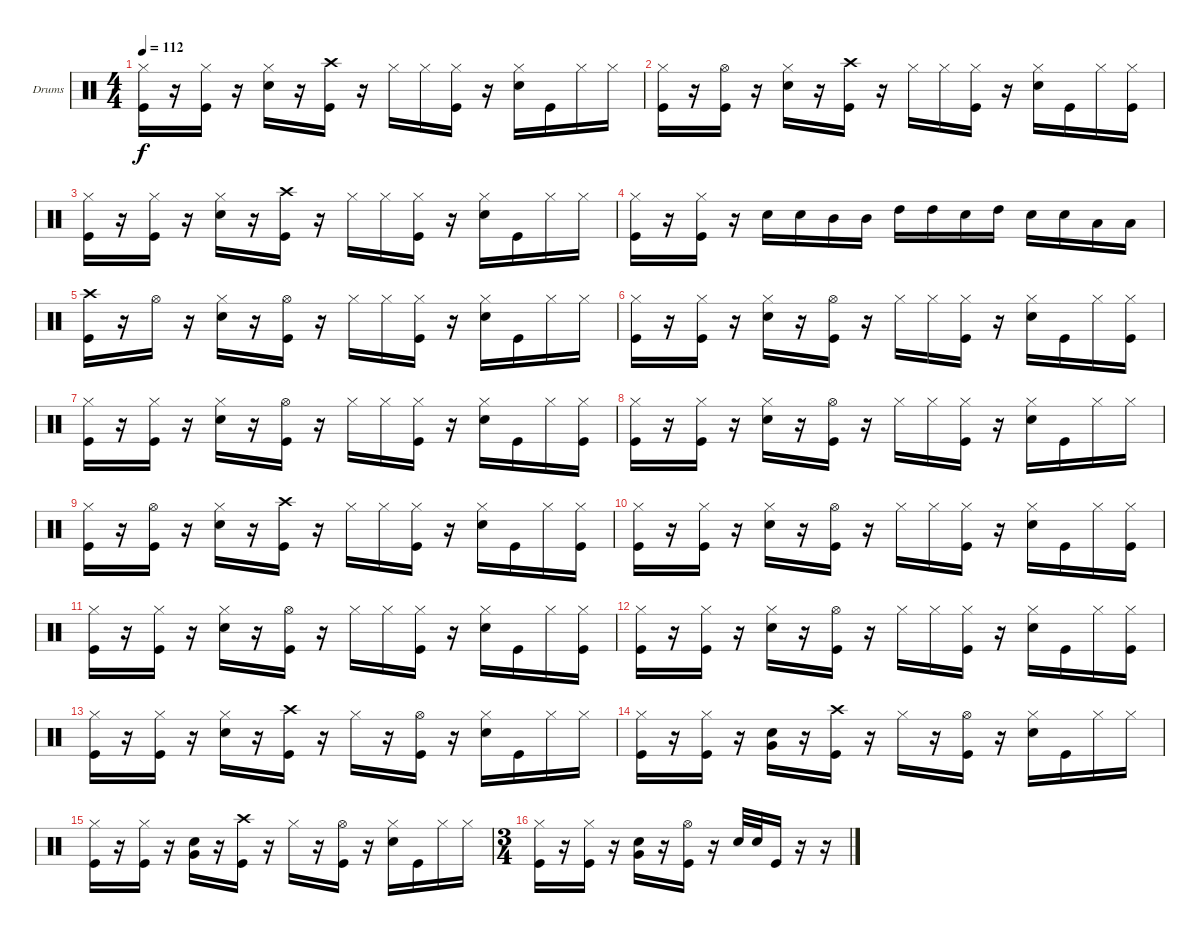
\bracketExtendMode groupsimilarinstruments
\firstSystemTrackNameOrientation horizontal
\otherSystemsTrackNameOrientation horizontal
\track ("Drumkit" "Drums") {instrument percussion}
\staff {score}
\articulation defaults
\ts (4 4)
\tempo 112
\clef neutral
\ks c
("Hi-Hat (closed)" "Kick (hit)").16{dy f} r.16 ("Hi-Hat (closed)" "Kick (hit)").16 r.16 ("Hi-Hat (closed)" "Snare (hit) 2").16 r.16 ("Crash high (hit)" "Kick (hit)").16 r.16 "Hi-Hat (closed)".16 "Hi-Hat (closed)".16 ("Hi-Hat (closed)" "Kick (hit)").16 r.16 ("Hi-Hat (closed)" "Snare (hit) 2").16 "Kick (hit)".16 "Hi-Hat (closed)".16 "Hi-Hat (closed)".16 |
("Hi-Hat (closed)" "Kick (hit)").16 r.16 ("Hi-Hat (open)" "Kick (hit)").16 r.16 ("Hi-Hat (closed)" "Snare (hit) 2").16 r.16 ("Crash high (hit)" "Kick (hit)").16 r.16 "Hi-Hat (closed)".16 "Hi-Hat (closed)".16 ("Hi-Hat (closed)" "Kick (hit)").16 r.16 ("Hi-Hat (closed)" "Snare (hit) 2").16 "Kick (hit)".16 "Hi-Hat (closed)".16 ("Hi-Hat (closed)" "Kick (hit)").16 |
("Hi-Hat (closed)" "Kick (hit)").16 r.16 ("Hi-Hat (closed)" "Kick (hit)").16 r.16 ("Hi-Hat (closed)" "Snare (hit) 2").16 r.16 ("Crash high (hit)" "Kick (hit)").16 r.16 "Hi-Hat (closed)".16 "Hi-Hat (closed)".16 ("Hi-Hat (closed)" "Kick (hit)").16 r.16 ("Hi-Hat (closed)" "Snare (hit) 2").16 "Kick (hit)".16 "Hi-Hat (closed)".16 "Hi-Hat (closed)".16 |
("Hi-Hat (closed)" "Kick (hit)").16 r.16 ("Hi-Hat (closed)" "Kick (hit)").16 r.16 "Snare (hit) 2".16 "Snare (hit) 2".16 "Mid Tom (hit)".16 "Mid Tom (hit)".16 "High Tom (hit)".16 "High Tom (hit)".16 "Snare (hit) 2".16 "High Tom (hit)".16 "Snare (hit) 2".16 "Snare (hit) 2".16 "Low Tom (hit)".16 "Low Tom (hit)".16 |
("Crash high (hit)" "Kick (hit)").16 r.16 "Hi-Hat (open)".16 r.16 ("Hi-Hat (closed)" "Snare (hit) 2").16 r.16 ("Hi-Hat (open)" "Kick (hit)").16 r.16 "Hi-Hat (closed)".16 "Hi-Hat (closed)".16 ("Hi-Hat (closed)" "Kick (hit)").16 r.16 ("Hi-Hat (closed)" "Snare (hit) 2").16 "Kick (hit)".16 "Hi-Hat (closed)".16 "Hi-Hat (closed)".16 |
("Hi-Hat (closed)" "Kick (hit)").16 r.16 ("Hi-Hat (closed)" "Kick (hit)").16 r.16 ("Hi-Hat (closed)" "Snare (hit) 2").16 r.16 ("Hi-Hat (open)" "Kick (hit)").16 r.16 "Hi-Hat (closed)".16 "Hi-Hat (closed)".16 ("Hi-Hat (closed)" "Kick (hit)").16 r.16 ("Hi-Hat (closed)" "Snare (hit) 2").16 "Kick (hit)".16 "Hi-Hat (closed)".16 ("Hi-Hat (closed)" "Kick (hit)").16 |
("Hi-Hat (closed)" "Kick (hit)").16 r.16 ("Hi-Hat (closed)" "Kick (hit)").16 r.16 ("Hi-Hat (closed)" "Snare (hit) 2").16 r.16 ("Hi-Hat (open)" "Kick (hit)").16 r.16 "Hi-Hat (closed)".16 "Hi-Hat (closed)".16 ("Hi-Hat (closed)" "Kick (hit)").16 r.16 ("Hi-Hat (closed)" "Snare (hit) 2").16 "Kick (hit)".16 "Hi-Hat (closed)".16 ("Hi-Hat (closed)" "Kick (hit)").16 |
("Hi-Hat (closed)" "Kick (hit)").16 r.16 ("Hi-Hat (closed)" "Kick (hit)").16 r.16 ("Hi-Hat (closed)" "Snare (hit) 2").16 r.16 ("Hi-Hat (open)" "Kick (hit)").16 r.16 "Hi-Hat (closed)".16 "Hi-Hat (closed)".16 ("Hi-Hat (closed)" "Kick (hit)").16 r.16 ("Hi-Hat (closed)" "Snare (hit) 2").16 "Kick (hit)".16 "Hi-Hat (closed)".16 "Hi-Hat (closed)".16 |
("Hi-Hat (closed)" "Kick (hit)").16 r.16 ("Hi-Hat (open)" "Kick (hit)").16 r.16 ("Hi-Hat (closed)" "Snare (hit) 2").16 r.16 ("Crash high (hit)" "Kick (hit)").16 r.16 "Hi-Hat (closed)".16 "Hi-Hat (closed)".16 ("Hi-Hat (closed)" "Kick (hit)").16 r.16 ("Hi-Hat (closed)" "Snare (hit) 2").16 "Kick (hit)".16 "Hi-Hat (closed)".16 ("Hi-Hat (closed)" "Kick (hit)").16 |
("Hi-Hat (closed)" "Kick (hit)").16 r.16 ("Hi-Hat (closed)" "Kick (hit)").16 r.16 ("Hi-Hat (closed)" "Snare (hit) 2").16 r.16 ("Hi-Hat (open)" "Kick (hit)").16 r.16 "Hi-Hat (closed)".16 "Hi-Hat (closed)".16 ("Hi-Hat (closed)" "Kick (hit)").16 r.16 ("Hi-Hat (closed)" "Snare (hit) 2").16 "Kick (hit)".16 "Hi-Hat (closed)".16 ("Hi-Hat (closed)" "Kick (hit)").16 |
("Hi-Hat (closed)" "Kick (hit)").16 r.16 ("Hi-Hat (closed)" "Kick (hit)").16 r.16 ("Hi-Hat (closed)" "Snare (hit) 2").16 r.16 ("Hi-Hat (open)" "Kick (hit)").16 r.16 "Hi-Hat (closed)".16 "Hi-Hat (closed)".16 ("Hi-Hat (closed)" "Kick (hit)").16 r.16 ("Hi-Hat (closed)" "Snare (hit) 2").16 "Kick (hit)".16 "Hi-Hat (closed)".16 ("Hi-Hat (closed)" "Kick (hit)").16 |
("Hi-Hat (closed)" "Kick (hit)").16 r.16 ("Hi-Hat (closed)" "Kick (hit)").16 r.16 ("Hi-Hat (closed)" "Snare (hit) 2").16 r.16 ("Hi-Hat (open)" "Kick (hit)").16 r.16 "Hi-Hat (closed)".16 "Hi-Hat (closed)".16 ("Hi-Hat (closed)" "Kick (hit)").16 r.16 ("Hi-Hat (closed)" "Snare (hit) 2").16 "Kick (hit)".16 "Hi-Hat (closed)".16 ("Hi-Hat (closed)" "Kick (hit)").16 |
("Hi-Hat (closed)" "Kick (hit)").16 r.16 ("Hi-Hat (closed)" "Kick (hit)").16 r.16 ("Hi-Hat (closed)" "Snare (hit) 2").16 r.16 ("Crash high (hit)" "Kick (hit)").16 r.16 "Hi-Hat (closed)".16 r.16 ("Hi-Hat (open)" "Kick (hit)").16 r.16 ("Hi-Hat (closed)" "Snare (hit) 2").16 "Kick (hit)".16 "Hi-Hat (closed)".16 "Hi-Hat (closed)".16 |
("Hi-Hat (closed)" "Kick (hit)").16 r.16 ("Hi-Hat (closed)" "Kick (hit)").16 r.16 ("Snare (hit) 2" "Very Low Tom (hit)").16 r.16 ("Crash high (hit)" "Kick (hit)").16 r.16 "Hi-Hat (closed)".16 r.16 ("Hi-Hat (open)" "Kick (hit)").16 r.16 ("Hi-Hat (closed)" "Snare (hit) 2").16 "Kick (hit)".16 "Hi-Hat (closed)".16 "Hi-Hat (closed)".16 |
("Hi-Hat (closed)" "Kick (hit)").16 r.16 ("Hi-Hat (closed)" "Kick (hit)").16 r.16 ("Snare (hit) 2" "Very Low Tom (hit)").16 r.16 ("Crash high (hit)" "Kick (hit)").16 r.16 "Hi-Hat (closed)".16 r.16 ("Hi-Hat (open)" "Kick (hit)").16 r.16 ("Hi-Hat (closed)" "Snare (hit) 2").16 "Kick (hit)".16 "Hi-Hat (closed)".16 "Hi-Hat (closed)".16 |
\ts (3 4)
\beaming (8 2 2 2 2)
("Hi-Hat (closed)" "Kick (hit)").16 r.16 ("Hi-Hat (closed)" "Kick (hit)").16 r.16 ("Snare (hit) 2" "Very Low Tom (hit)").16 r.16 ("Hi-Hat (open)" "Kick (hit)").16 r.16 "Snare (hit) 2".32 "Snare (hit) 2".32 "Kick (hit)".16 r.16 r.16
